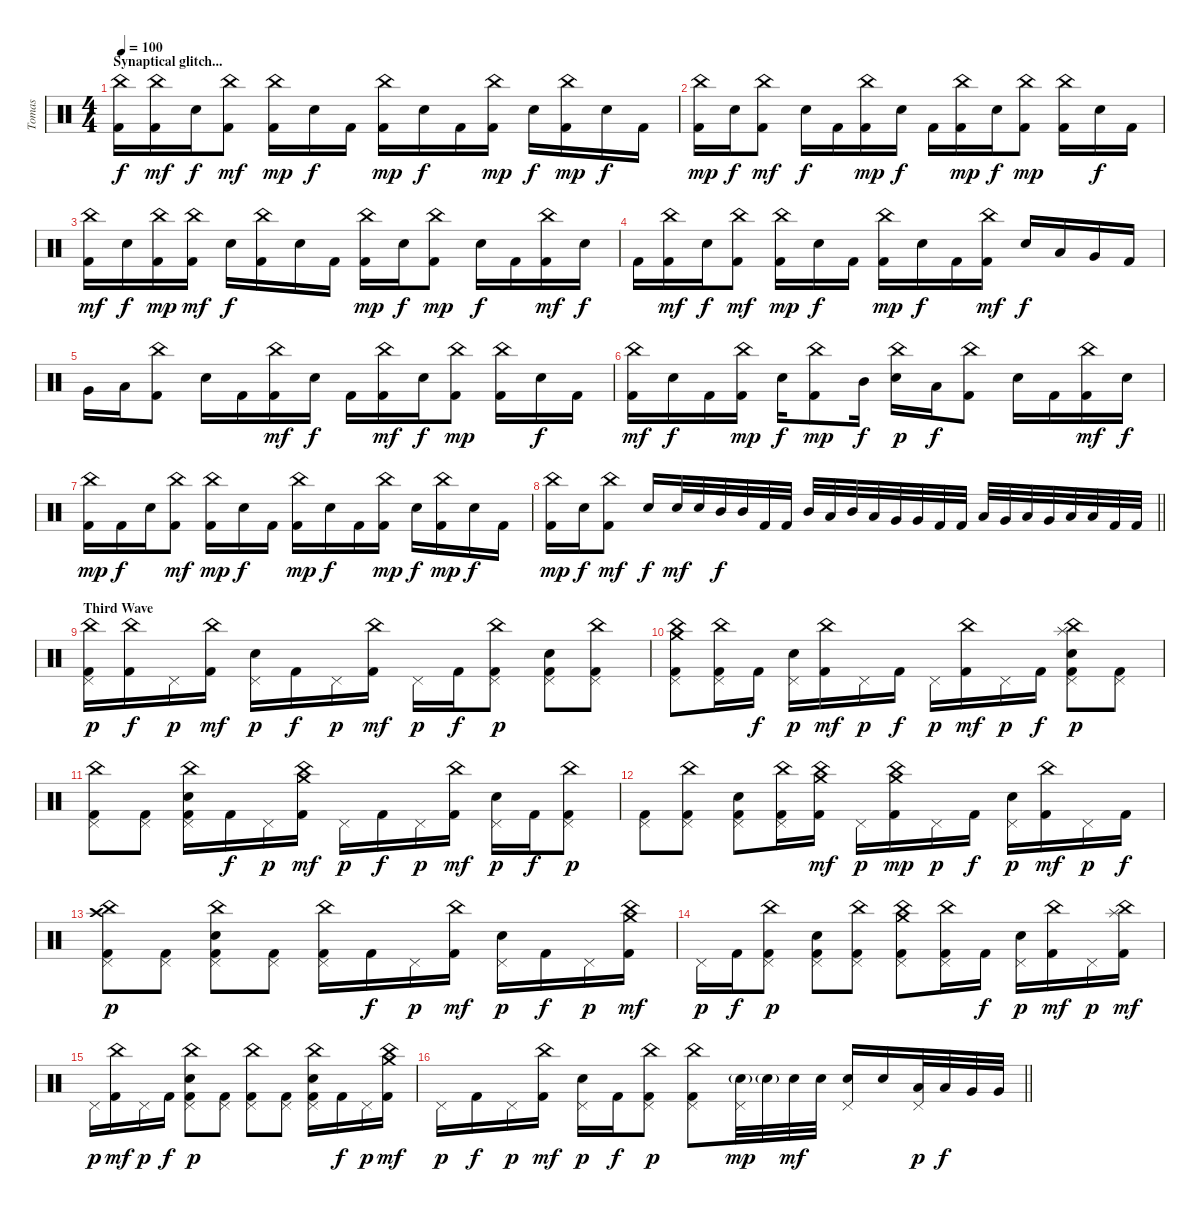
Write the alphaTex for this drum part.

\track ("Tomas" "Tomas") {instrument percussion}
\staff {score}
\articulation defaults
\ts (4 4)
\section ("" "Synaptical glitch...")
\tempo 100
\clef neutral
\ks c
("China (hit)" "Kick (hit) 2").16{dy f} ("China (hit)" "Kick (hit) 2").16{dy mf} "Electric Snare (hit)".16{dy f} ("China (hit)" "Kick (hit) 2").8{dy mf} ("China (hit)" "Kick (hit) 2").16{dy mp} "Electric Snare (hit)".16{dy f} "Kick (hit) 2".16 ("China (hit)" "Kick (hit) 2").16{dy mp} "Electric Snare (hit)".16{dy f} "Kick (hit) 2".16 ("China (hit)" "Kick (hit) 2").16{dy mp} "Electric Snare (hit)".16{dy f} ("China (hit)" "Kick (hit) 2").16{dy mp} "Electric Snare (hit)".16{dy f} "Kick (hit) 2".16 |
("China (hit)" "Kick (hit) 2").16{dy mp} "Electric Snare (hit)".16{dy f} ("China (hit)" "Kick (hit) 2").8{dy mf} "Electric Snare (hit)".16{dy f} "Kick (hit) 2".16 ("China (hit)" "Kick (hit) 2").16{dy mp} "Electric Snare (hit)".16{dy f} "Kick (hit) 2".16 ("China (hit)" "Kick (hit) 2").16{dy mp} "Electric Snare (hit)".16{dy f} ("China (hit)" "Kick (hit) 2").8{dy mp} ("China (hit)" "Kick (hit) 2").16 "Electric Snare (hit)".16{dy f} "Kick (hit) 2".16 |
("China (hit)" "Kick (hit) 2").16{dy mf} "Electric Snare (hit)".16{dy f} ("China (hit)" "Kick (hit) 2").16{dy mp} ("China (hit)" "Kick (hit) 2").16{dy mf} "Electric Snare (hit)".16{dy f} ("China (hit)" "Kick (hit) 2").16 "Electric Snare (hit)".16 "Kick (hit) 2".16 ("China (hit)" "Kick (hit) 2").16{dy mp} "Electric Snare (hit)".16{dy f} ("China (hit)" "Kick (hit) 2").8{dy mp} "Electric Snare (hit)".16{dy f} "Kick (hit) 2".16 ("China (hit)" "Kick (hit) 2").16{dy mf} "Electric Snare (hit)".16{dy f} |
"Kick (hit) 2".16 ("China (hit)" "Kick (hit) 2").16{dy mf} "Electric Snare (hit)".16{dy f} ("China (hit)" "Kick (hit) 2").8{dy mf} ("China (hit)" "Kick (hit) 2").16{dy mp} "Electric Snare (hit)".16{dy f} "Kick (hit) 2".16 ("China (hit)" "Kick (hit) 2").16{dy mp} "Electric Snare (hit)".16{dy f} "Kick (hit) 2".16 ("China (hit)" "Kick (hit) 2").16{dy mf} "Electric Snare (hit)".16{dy f} "Low Tom (hit)".16 "Very Low Tom (hit)".16 "Kick (hit) 2".16 |
"Very Low Tom (hit)".16 "Low Floor Tom (hit)".16 ("China (hit)" "Kick (hit) 2").8 "Electric Snare (hit)".16 "Kick (hit) 2".16 ("China (hit)" "Kick (hit) 2").16{dy mf} "Electric Snare (hit)".16{dy f} "Kick (hit) 2".16 ("China (hit)" "Kick (hit) 2").16{dy mf} "Electric Snare (hit)".16{dy f} ("China (hit)" "Kick (hit) 2").8{dy mp} ("China (hit)" "Kick (hit) 2").16 "Electric Snare (hit)".16{dy f} "Kick (hit) 2".16 |
("China (hit)" "Kick (hit) 2").16{dy mf} "Electric Snare (hit)".16{dy f} "Kick (hit) 2".16 ("China (hit)" "Kick (hit) 2").16{dy mp} "Electric Snare (hit)".16{dy f} ("China (hit)" "Kick (hit) 2").8{dy mp} "Mid Tom (hit)".16{dy f} ("China (hit)" "Electric Snare (hit)").16{dy p} "Low Tom (hit)".16{dy f} ("China (hit)" "Kick (hit) 2").8 "Electric Snare (hit)".16 "Kick (hit) 2".16 ("China (hit)" "Kick (hit) 2").16{dy mf} "Electric Snare (hit)".16{dy f} |
("China (hit)" "Kick (hit) 2").16{dy mp} "Kick (hit) 2".16{dy f} "Electric Snare (hit)".16 ("China (hit)" "Kick (hit) 2").8{dy mf} ("China (hit)" "Kick (hit) 2").16{dy mp} "Electric Snare (hit)".16{dy f} "Kick (hit) 2".16 ("China (hit)" "Kick (hit) 2").16{dy mp} "Electric Snare (hit)".16{dy f} "Kick (hit) 2".16 ("China (hit)" "Kick (hit) 2").16{dy mp} "Electric Snare (hit)".16{dy f} ("China (hit)" "Kick (hit) 2").16{dy mp} "Electric Snare (hit)".16{dy f} "Kick (hit) 2".16 |
\barLineRight lightlight
("China (hit)" "Kick (hit) 2").16{dy mp} "Electric Snare (hit)".16{dy f} ("China (hit)" "Kick (hit) 2").8{dy mf} "Electric Snare (hit)".16{dy f} "Electric Snare (hit)".32{dy mf} "Electric Snare (hit)".32 "Mid Tom (hit)".32{dy f} "Mid Tom (hit)".32 "Kick (hit) 2".32 "Kick (hit) 2".32 "Mid Tom (hit)".32 "Low Tom (hit)".32 "Mid Tom (hit)".32 "Low Tom (hit)".32 "Very Low Tom (hit)".32 "Very Low Tom (hit)".32 "Kick (hit) 2".32 "Kick (hit) 2".32 "Low Tom (hit)".32 "Very Low Tom (hit)".32 "Low Tom (hit)".32 "Very Low Tom (hit)".32 "Low Floor Tom (hit)".32 "Low Floor Tom (hit)".32 "Kick (hit) 2".32 "Kick (hit) 2".32 |
\section ("" "Third Wave")
("China (hit)" "Pedal Hi-Hat (hit)" "Kick (hit) 2").16{dy p} ("China (hit)" "Kick (hit) 2").16{dy f} "Pedal Hi-Hat (hit)".16{dy p} ("China (hit)" "Kick (hit) 2").16{dy mf} ("Pedal Hi-Hat (hit)" "Electric Snare (hit)").16{dy p} "Kick (hit) 2".16{dy f} "Pedal Hi-Hat (hit)".16{dy p} ("China (hit)" "Kick (hit) 2").16{dy mf} "Pedal Hi-Hat (hit)".16{dy p} "Kick (hit) 2".16{dy f} ("China (hit)" "Pedal Hi-Hat (hit)" "Kick (hit) 2").8{dy p} ("Pedal Hi-Hat (hit)" "Electric Snare (hit)" "Kick (hit) 2").8 ("China (hit)" "Pedal Hi-Hat (hit)" "Kick (hit) 2").8 |
("China (hit)" "Crash medium (hit)" "Pedal Hi-Hat (hit)" "Kick (hit) 2").8 ("China (hit)" "Pedal Hi-Hat (hit)" "Kick (hit) 2").16 "Kick (hit) 2".16{dy f} ("Pedal Hi-Hat (hit)" "Electric Snare (hit)").16{dy p} ("China (hit)" "Kick (hit) 2").16{dy mf} "Pedal Hi-Hat (hit)".16{dy p} "Kick (hit) 2".16{dy f} "Pedal Hi-Hat (hit)".16{dy p} ("China (hit)" "Kick (hit) 2").16{dy mf} "Pedal Hi-Hat (hit)".16{dy p} "Kick (hit) 2".16{dy f} ("China (hit)" "Splash (hit)" "Pedal Hi-Hat (hit)" "Electric Snare (hit)" "Kick (hit) 2").8{dy p} ("Pedal Hi-Hat (hit)" "Kick (hit) 2").8 |
("China (hit)" "Pedal Hi-Hat (hit)" "Kick (hit) 2").8 ("Pedal Hi-Hat (hit)" "Kick (hit) 2").8 ("China (hit)" "Pedal Hi-Hat (hit)" "Electric Snare (hit)" "Kick (hit) 2").16 "Kick (hit) 2".16{dy f} "Pedal Hi-Hat (hit)".16{dy p} ("China (hit)" "Crash medium (hit)" "Kick (hit) 2").16{dy mf} "Pedal Hi-Hat (hit)".16{dy p} "Kick (hit) 2".16{dy f} "Pedal Hi-Hat (hit)".16{dy p} ("China (hit)" "Kick (hit) 2").16{dy mf} ("Pedal Hi-Hat (hit)" "Electric Snare (hit)").16{dy p} "Kick (hit) 2".16{dy f} ("China (hit)" "Pedal Hi-Hat (hit)" "Kick (hit) 2").8{dy p} |
("Pedal Hi-Hat (hit)" "Kick (hit) 2").8 ("China (hit)" "Pedal Hi-Hat (hit)" "Kick (hit) 2").8 ("Pedal Hi-Hat (hit)" "Electric Snare (hit)" "Kick (hit) 2").8 ("China (hit)" "Pedal Hi-Hat (hit)" "Kick (hit) 2").16 ("China (hit)" "Crash medium (hit)" "Kick (hit) 2").16{dy mf} "Pedal Hi-Hat (hit)".16{dy p} ("China (hit)" "Crash medium (hit)" "Kick (hit) 2").16{dy mp} "Pedal Hi-Hat (hit)".16{dy p} "Kick (hit) 2".16{dy f} ("Pedal Hi-Hat (hit)" "Electric Snare (hit)").16{dy p} ("China (hit)" "Kick (hit) 2").16{dy mf} "Pedal Hi-Hat (hit)".16{dy p} "Kick (hit) 2".16{dy f} |
("China (hit)" "Crash high (hit)" "Pedal Hi-Hat (hit)" "Kick (hit) 2").8{dy p} ("Pedal Hi-Hat (hit)" "Kick (hit) 2").8 ("China (hit)" "Pedal Hi-Hat (hit)" "Electric Snare (hit)" "Kick (hit) 2").8 ("Pedal Hi-Hat (hit)" "Kick (hit) 2").8 ("China (hit)" "Pedal Hi-Hat (hit)" "Kick (hit) 2").16 "Kick (hit) 2".16{dy f} "Pedal Hi-Hat (hit)".16{dy p} ("China (hit)" "Kick (hit) 2").16{dy mf} ("Pedal Hi-Hat (hit)" "Electric Snare (hit)").16{dy p} "Kick (hit) 2".16{dy f} "Pedal Hi-Hat (hit)".16{dy p} ("China (hit)" "Crash medium (hit)" "Kick (hit) 2").16{dy mf} |
"Pedal Hi-Hat (hit)".16{dy p} "Kick (hit) 2".16{dy f} ("China (hit)" "Pedal Hi-Hat (hit)" "Kick (hit) 2").8{dy p} ("Pedal Hi-Hat (hit)" "Electric Snare (hit)" "Kick (hit) 2").8 ("China (hit)" "Pedal Hi-Hat (hit)" "Kick (hit) 2").8 ("China (hit)" "Crash medium (hit)" "Pedal Hi-Hat (hit)" "Kick (hit) 2").8 ("China (hit)" "Pedal Hi-Hat (hit)" "Kick (hit) 2").16 "Kick (hit) 2".16{dy f} ("Pedal Hi-Hat (hit)" "Electric Snare (hit)").16{dy p} ("China (hit)" "Kick (hit) 2").16{dy mf} "Pedal Hi-Hat (hit)".16{dy p} ("China (hit)" "Splash (hit)" "Kick (hit) 2").16{dy mf} |
"Pedal Hi-Hat (hit)".16{dy p} ("China (hit)" "Kick (hit) 2").16{dy mf} "Pedal Hi-Hat (hit)".16{dy p} "Kick (hit) 2".16{dy f} ("China (hit)" "Pedal Hi-Hat (hit)" "Electric Snare (hit)" "Kick (hit) 2").8{dy p} ("Pedal Hi-Hat (hit)" "Kick (hit) 2").8 ("China (hit)" "Pedal Hi-Hat (hit)" "Kick (hit) 2").8 ("Pedal Hi-Hat (hit)" "Kick (hit) 2").8 ("China (hit)" "Pedal Hi-Hat (hit)" "Electric Snare (hit)" "Kick (hit) 2").16 "Kick (hit) 2".16{dy f} "Pedal Hi-Hat (hit)".16{dy p} ("China (hit)" "Crash medium (hit)" "Kick (hit) 2").16{dy mf} |
\barLineRight lightlight "Pedal Hi-Hat (hit)".16{dy p} "Kick (hit) 2".16{dy f} "Pedal Hi-Hat (hit)".16{dy p}
("China (hit)" "Kick (hit) 2").16{dy mf} ("Pedal Hi-Hat (hit)" "Electric Snare (hit)").16{dy p} "Kick (hit) 2".16{dy f} ("China (hit)" "Pedal Hi-Hat (hit)" "Kick (hit) 2").8{dy p} ("China (hit)" "Pedal Hi-Hat (hit)" "Kick (hit) 2").8 ("Pedal Hi-Hat (hit)" "Electric Snare (hit)"{g}).32{dy mp} "Electric Snare (hit)"{g}.32 "Electric Snare (hit)".32{dy mf} "Electric Snare (hit)".32 ("Pedal Hi-Hat (hit)" "Electric Snare (hit)").16 "Electric Snare (hit)".16 ("Pedal Hi-Hat (hit)" "Low Tom (hit)").32{dy p} "Low Tom (hit)".32{dy f} "Very Low Tom (hit)".32 "Very Low Tom (hit)".32
